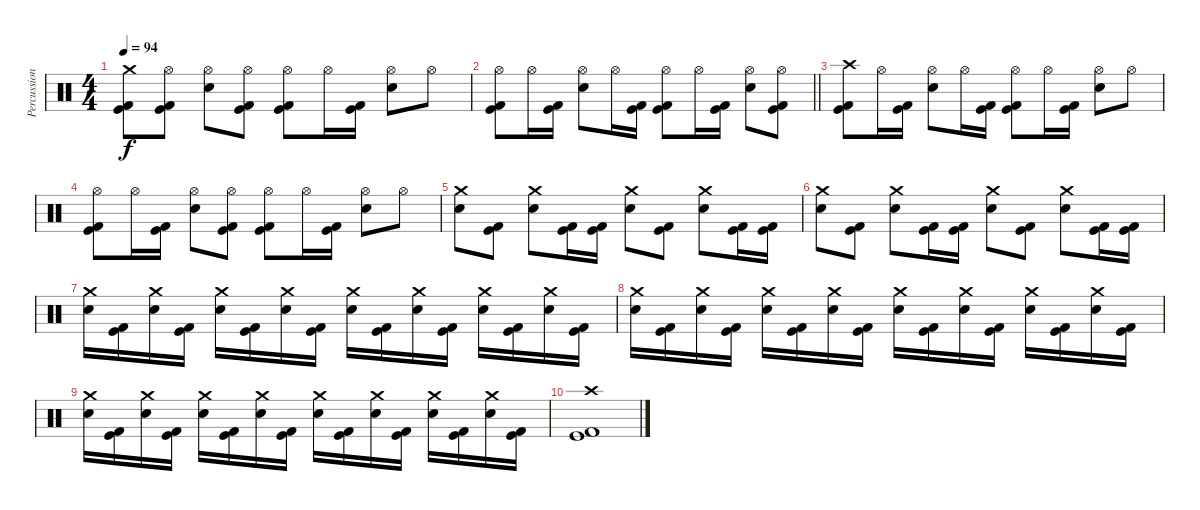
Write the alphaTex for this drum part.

\track ("Percussion" "Percussion") {instrument percussion}
\staff {score}
\articulation defaults
\ts (4 4)
\tempo 94
\clef neutral
\ks c
("Crash medium (hit)" "Kick (hit)" "Kick (hit) 2").8{dy f} ("Hi-Hat (open)" "Kick (hit)" "Kick (hit) 2").8 ("Hi-Hat (open)" "Electric Snare (hit)").8 ("Hi-Hat (open)" "Kick (hit)" "Kick (hit) 2").8 ("Hi-Hat (open)" "Kick (hit)" "Kick (hit) 2").8 "Hi-Hat (open)".16 ("Kick (hit)" "Kick (hit) 2").16 ("Hi-Hat (open)" "Electric Snare (hit)").8 "Hi-Hat (open)".8 |
\barLineRight lightlight
("Hi-Hat (open)" "Kick (hit)" "Kick (hit) 2").8 "Hi-Hat (open)".16 ("Kick (hit)" "Kick (hit) 2").16 ("Hi-Hat (open)" "Electric Snare (hit)").8 "Hi-Hat (open)".16 ("Kick (hit)" "Kick (hit) 2").16 ("Hi-Hat (open)" "Kick (hit)" "Kick (hit) 2").8 "Hi-Hat (open)".16 ("Kick (hit)" "Kick (hit) 2").16 ("Hi-Hat (open)" "Electric Snare (hit)").8 ("Hi-Hat (open)" "Kick (hit)" "Kick (hit) 2").8 |
\section ("" "")
("Crash high (hit)" "Kick (hit)" "Kick (hit) 2").8 "Hi-Hat (open)".16 ("Kick (hit)" "Kick (hit) 2").16 ("Hi-Hat (open)" "Electric Snare (hit)").8 "Hi-Hat (open)".16 ("Kick (hit)" "Kick (hit) 2").16 ("Hi-Hat (open)" "Kick (hit)" "Kick (hit) 2").8 "Hi-Hat (open)".16 ("Kick (hit)" "Kick (hit) 2").16 ("Hi-Hat (open)" "Electric Snare (hit)").8 "Hi-Hat (open)".8 |
("Hi-Hat (open)" "Kick (hit)" "Kick (hit) 2").8 "Hi-Hat (open)".16 ("Kick (hit)" "Kick (hit) 2").16 ("Hi-Hat (open)" "Electric Snare (hit)").8 ("Hi-Hat (open)" "Kick (hit)" "Kick (hit) 2").8 ("Hi-Hat (open)" "Kick (hit)" "Kick (hit) 2").8 "Hi-Hat (open)".16 ("Kick (hit)" "Kick (hit) 2").16 ("Hi-Hat (open)" "Electric Snare (hit)").8 "Hi-Hat (open)".8 |
("Crash medium (hit)" "Electric Snare (hit)").8 ("Kick (hit)" "Kick (hit) 2").8 ("Crash medium (hit)" "Electric Snare (hit)").8 ("Kick (hit)" "Kick (hit) 2").16 ("Kick (hit)" "Kick (hit) 2").16 ("Crash medium (hit)" "Electric Snare (hit)").8 ("Kick (hit)" "Kick (hit) 2").8 ("Crash medium (hit)" "Electric Snare (hit)").8 ("Kick (hit)" "Kick (hit) 2").16 ("Kick (hit)" "Kick (hit) 2").16 |
("Crash medium (hit)" "Electric Snare (hit)").8 ("Kick (hit)" "Kick (hit) 2").8 ("Crash medium (hit)" "Electric Snare (hit)").8 ("Kick (hit)" "Kick (hit) 2").16 ("Kick (hit)" "Kick (hit) 2").16 ("Crash medium (hit)" "Electric Snare (hit)").8 ("Kick (hit)" "Kick (hit) 2").8 ("Crash medium (hit)" "Electric Snare (hit)").8 ("Kick (hit)" "Kick (hit) 2").16 ("Kick (hit)" "Kick (hit) 2").16 |
("Crash medium (hit)" "Electric Snare (hit)").16 ("Kick (hit)" "Kick (hit) 2").16 ("Crash medium (hit)" "Electric Snare (hit)").16 ("Kick (hit)" "Kick (hit) 2").16 ("Crash medium (hit)" "Electric Snare (hit)").16 ("Kick (hit)" "Kick (hit) 2").16 ("Crash medium (hit)" "Electric Snare (hit)").16 ("Kick (hit)" "Kick (hit) 2").16 ("Crash medium (hit)" "Electric Snare (hit)").16 ("Kick (hit)" "Kick (hit) 2").16 ("Crash medium (hit)" "Electric Snare (hit)").16 ("Kick (hit)" "Kick (hit) 2").16 ("Crash medium (hit)" "Electric Snare (hit)").16 ("Kick (hit)" "Kick (hit) 2").16 ("Crash medium (hit)" "Electric Snare (hit)").16 ("Kick (hit)" "Kick (hit) 2").16 |
("Crash medium (hit)" "Electric Snare (hit)").16 ("Kick (hit)" "Kick (hit) 2").16 ("Crash medium (hit)" "Electric Snare (hit)").16 ("Kick (hit)" "Kick (hit) 2").16 ("Crash medium (hit)" "Electric Snare (hit)").16 ("Kick (hit)" "Kick (hit) 2").16 ("Crash medium (hit)" "Electric Snare (hit)").16 ("Kick (hit)" "Kick (hit) 2").16 ("Crash medium (hit)" "Electric Snare (hit)").16 ("Kick (hit)" "Kick (hit) 2").16 ("Crash medium (hit)" "Electric Snare (hit)").16 ("Kick (hit)" "Kick (hit) 2").16 ("Crash medium (hit)" "Electric Snare (hit)").16 ("Kick (hit)" "Kick (hit) 2").16 ("Crash medium (hit)" "Electric Snare (hit)").16 ("Kick (hit)" "Kick (hit) 2").16 |
("Crash medium (hit)" "Electric Snare (hit)").16 ("Kick (hit)" "Kick (hit) 2").16 ("Crash medium (hit)" "Electric Snare (hit)").16 ("Kick (hit)" "Kick (hit) 2").16 ("Crash medium (hit)" "Electric Snare (hit)").16 ("Kick (hit)" "Kick (hit) 2").16 ("Crash medium (hit)" "Electric Snare (hit)").16 ("Kick (hit)" "Kick (hit) 2").16 ("Crash medium (hit)" "Electric Snare (hit)").16 ("Kick (hit)" "Kick (hit) 2").16 ("Crash medium (hit)" "Electric Snare (hit)").16 ("Kick (hit)" "Kick (hit) 2").16 ("Crash medium (hit)" "Electric Snare (hit)").16 ("Kick (hit)" "Kick (hit) 2").16 ("Crash medium (hit)" "Electric Snare (hit)").16 ("Kick (hit)" "Kick (hit) 2").16 |
("Crash high (hit)" "Kick (hit)" "Kick (hit) 2").1
